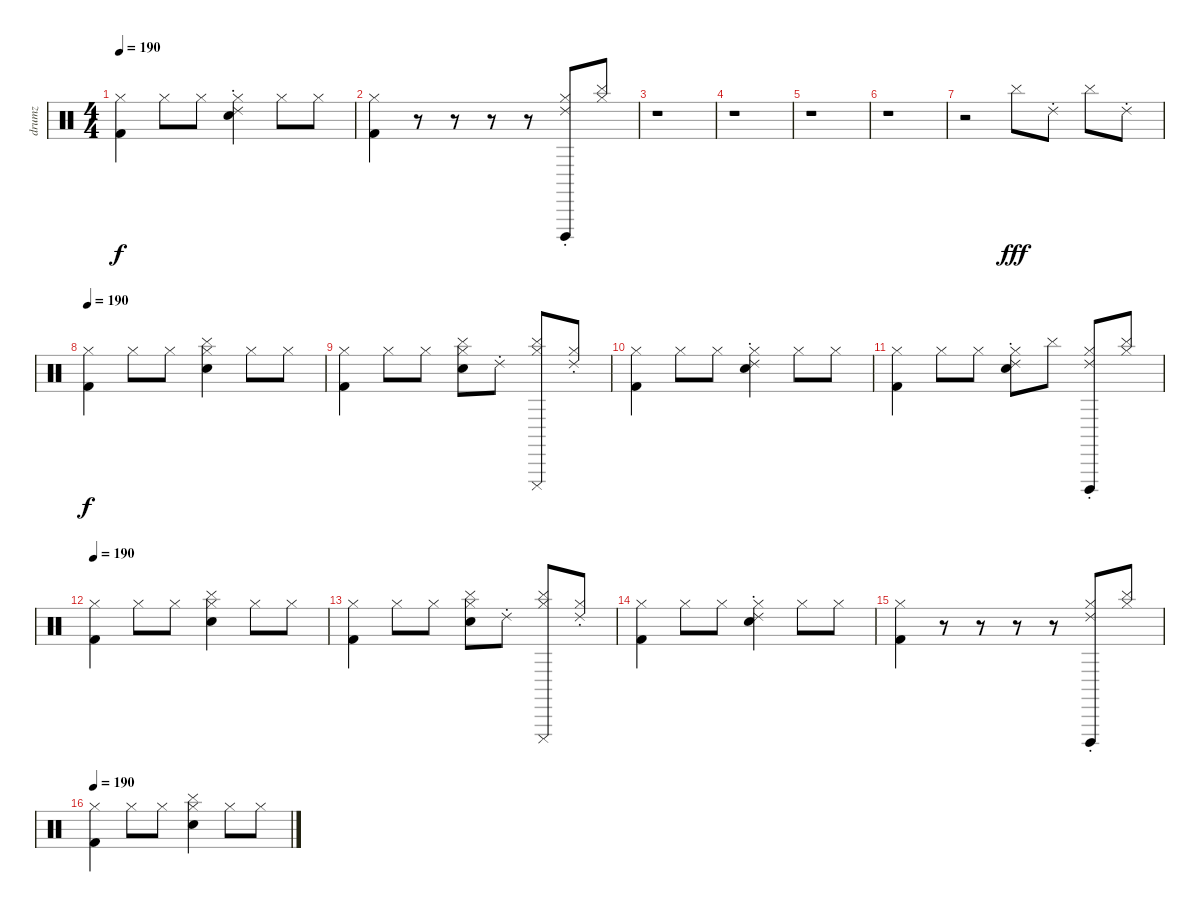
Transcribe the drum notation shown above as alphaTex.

\track ("drumz" "drumz") {instrument percussion}
\staff {score}
\articulation defaults
\ts (4 4)
\tempo 190
\clef neutral
\ks c
("Hi-Hat (closed)" "Kick (hit) 2").4{dy f} "Hi-Hat (closed)".8 "Hi-Hat (closed)".8 ("Ride (choke) 2" "Hi-Hat (closed)" "Hand Clap (hit)").4 "Hi-Hat (closed)".8 "Hi-Hat (closed)".8 |
("Hi-Hat (closed)" "Kick (hit) 2").4 r.8 r.8 r.8 r.8 ("Ride (choke) 2" "Cuica (open)" "Hi-Hat (closed)").8 ("Cymbal (hit)" "Hi-Hat (closed)").8 |
r.1 |
r.1 |
r.1 |
r.1 |
r.2 "Cymbal (hit)".8{dy fff} "Ride (choke) 2".8 "Cymbal (hit)".8 "Ride (choke) 2".8 |
\tempo 190
("Hi-Hat (closed)" "Kick (hit) 2").4{dy f} "Hi-Hat (closed)".8 "Hi-Hat (closed)".8 ("Cymbal (hit)" "Hi-Hat (closed)" "Hand Clap (hit)").4 "Hi-Hat (closed)".8 "Hi-Hat (closed)".8 |
("Hi-Hat (closed)" "Kick (hit) 2").4 "Hi-Hat (closed)".8 "Hi-Hat (closed)".8 ("Cymbal (hit)" "Hi-Hat (closed)" "Hand Clap (hit)").8 "Ride (choke) 2".8 ("Cymbal (hit)" "Cuica (mute)" "Hi-Hat (closed)").8 ("Ride (choke) 2" "Hi-Hat (closed)").8 |
("Hi-Hat (closed)" "Kick (hit) 2").4 "Hi-Hat (closed)".8 "Hi-Hat (closed)".8 ("Ride (choke) 2" "Hi-Hat (closed)" "Hand Clap (hit)").4 "Hi-Hat (closed)".8 "Hi-Hat (closed)".8 |
("Hi-Hat (closed)" "Kick (hit) 2").4 "Hi-Hat (closed)".8 "Hi-Hat (closed)".8 ("Ride (choke) 2" "Hi-Hat (closed)" "Hand Clap (hit)").8 "Cymbal (hit)".8 ("Ride (choke) 2" "Cuica (open)" "Hi-Hat (closed)").8 ("Cymbal (hit)" "Hi-Hat (closed)").8 |
\tempo 190
("Hi-Hat (closed)" "Kick (hit) 2").4 "Hi-Hat (closed)".8 "Hi-Hat (closed)".8 ("Cymbal (hit)" "Hi-Hat (closed)" "Hand Clap (hit)").4 "Hi-Hat (closed)".8 "Hi-Hat (closed)".8 |
("Hi-Hat (closed)" "Kick (hit) 2").4 "Hi-Hat (closed)".8 "Hi-Hat (closed)".8 ("Cymbal (hit)" "Hi-Hat (closed)" "Hand Clap (hit)").8 "Ride (choke) 2".8 ("Cymbal (hit)" "Cuica (mute)" "Hi-Hat (closed)").8 ("Ride (choke) 2" "Hi-Hat (closed)").8 |
("Hi-Hat (closed)" "Kick (hit) 2").4 "Hi-Hat (closed)".8 "Hi-Hat (closed)".8 ("Ride (choke) 2" "Hi-Hat (closed)" "Hand Clap (hit)").4 "Hi-Hat (closed)".8 "Hi-Hat (closed)".8 |
("Hi-Hat (closed)" "Kick (hit) 2").4 r.8 r.8 r.8 r.8 ("Ride (choke) 2" "Cuica (open)" "Hi-Hat (closed)").8 ("Cymbal (hit)" "Hi-Hat (closed)").8 |
\tempo 190
("Hi-Hat (closed)" "Kick (hit) 2").4 "Hi-Hat (closed)".8 "Hi-Hat (closed)".8 ("Cymbal (hit)" "Hi-Hat (closed)" "Hand Clap (hit)").4 "Hi-Hat (closed)".8 "Hi-Hat (closed)".8
